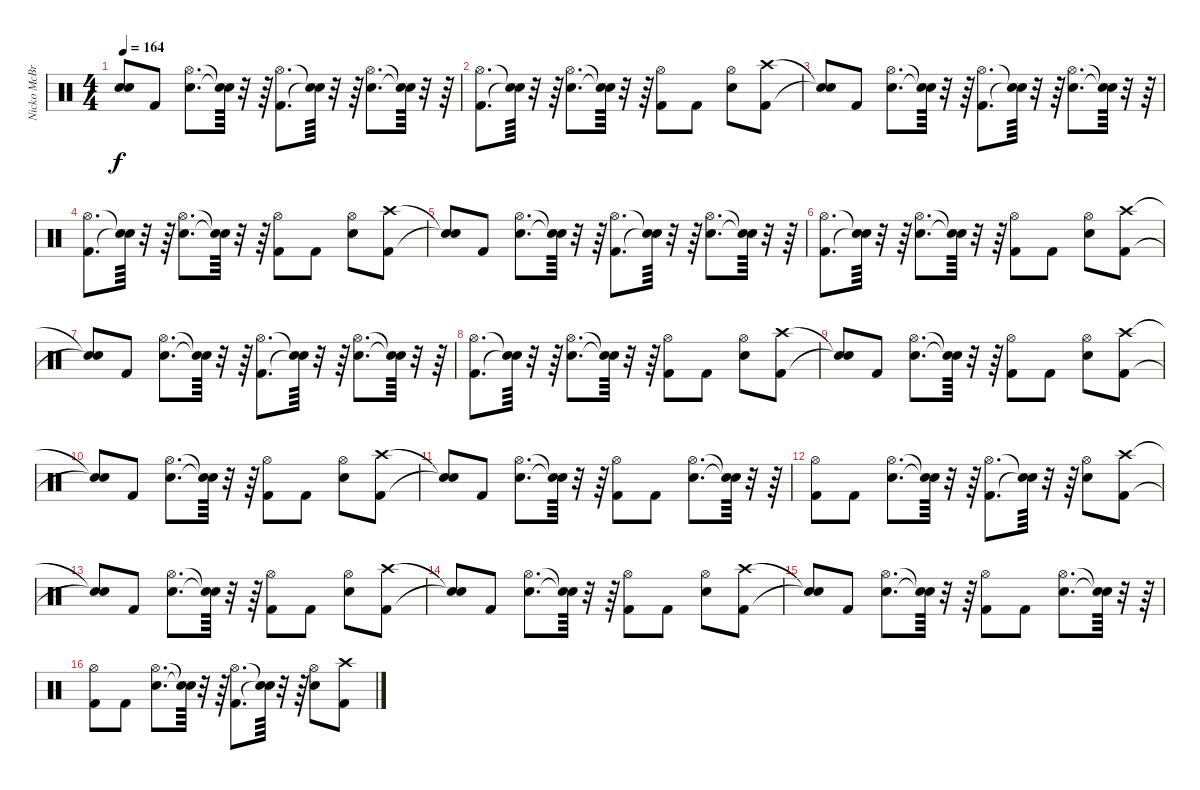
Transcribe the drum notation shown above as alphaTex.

\track ("Nicko McBrian (Drums)" "Nicko McBr") {instrument percussion}
\staff {score}
\articulation defaults
\ts (4 4)
\tempo 164
\clef neutral
\ks c
("Snare (hit)"{t} "Snare (hit)"{t}).8{dy f} "Kick (hit) 2".8 ("Snare (hit) 2" "Hi-Hat (open)").8{d} ("Snare (hit)"{t} "Snare (hit)"{t}).64 r.32 r.64 ("Kick (hit) 2" "Hi-Hat (open)").8{d} ("Snare (hit)"{t} "Snare (hit)"{t}).64 r.32 r.64 ("Snare (hit) 2" "Hi-Hat (open)").8{d} ("Snare (hit)"{t} "Snare (hit)"{t}).64 r.32 r.64 |
("Kick (hit) 2" "Hi-Hat (open)").8{d} ("Snare (hit)"{t} "Snare (hit)"{t}).64 r.32 r.64 ("Snare (hit) 2" "Hi-Hat (open)").8{d} ("Snare (hit)"{t} "Snare (hit)"{t}).64 r.32 r.64 ("Kick (hit) 2" "Hi-Hat (open)").8 "Kick (hit) 2".8 ("Snare (hit) 2" "Hi-Hat (open)").8 ("Kick (hit) 2" "Crash high (hit)").8 |
("Snare (hit)"{t} "Snare (hit)"{t}).8 "Kick (hit) 2".8 ("Snare (hit) 2" "Hi-Hat (open)").8{d} ("Snare (hit)"{t} "Snare (hit)"{t}).64 r.32 r.64 ("Kick (hit) 2" "Hi-Hat (open)").8{d} ("Snare (hit)"{t} "Snare (hit)"{t}).64 r.32 r.64 ("Snare (hit) 2" "Hi-Hat (open)").8{d} ("Snare (hit)"{t} "Snare (hit)"{t}).64 r.32 r.64 |
("Kick (hit) 2" "Hi-Hat (open)").8{d} ("Snare (hit)"{t} "Snare (hit)"{t}).64 r.32 r.64 ("Snare (hit) 2" "Hi-Hat (open)").8{d} ("Snare (hit)"{t} "Snare (hit)"{t}).64 r.32 r.64 ("Kick (hit) 2" "Hi-Hat (open)").8 "Kick (hit) 2".8 ("Snare (hit) 2" "Hi-Hat (open)").8 ("Kick (hit) 2" "Crash high (hit)").8 |
("Snare (hit)"{t} "Snare (hit)"{t}).8 "Kick (hit) 2".8 ("Snare (hit) 2" "Hi-Hat (open)").8{d} ("Snare (hit)"{t} "Snare (hit)"{t}).64 r.32 r.64 ("Kick (hit) 2" "Hi-Hat (open)").8{d} ("Snare (hit)"{t} "Snare (hit)"{t}).64 r.32 r.64 ("Snare (hit) 2" "Hi-Hat (open)").8{d} ("Snare (hit)"{t} "Snare (hit)"{t}).64 r.32 r.64 |
("Kick (hit) 2" "Hi-Hat (open)").8{d} ("Snare (hit)"{t} "Snare (hit)"{t}).64 r.32 r.64 ("Snare (hit) 2" "Hi-Hat (open)").8{d} ("Snare (hit)"{t} "Snare (hit)"{t}).64 r.32 r.64 ("Kick (hit) 2" "Hi-Hat (open)").8 "Kick (hit) 2".8 ("Snare (hit) 2" "Hi-Hat (open)").8 ("Kick (hit) 2" "Crash high (hit)").8 |
("Snare (hit)"{t} "Snare (hit)"{t}).8 "Kick (hit) 2".8 ("Snare (hit) 2" "Hi-Hat (open)").8{d} ("Snare (hit)"{t} "Snare (hit)"{t}).64 r.32 r.64 ("Kick (hit) 2" "Hi-Hat (open)").8{d} ("Snare (hit)"{t} "Snare (hit)"{t}).64 r.32 r.64 ("Snare (hit) 2" "Hi-Hat (open)").8{d} ("Snare (hit)"{t} "Snare (hit)"{t}).64 r.32 r.64 |
("Kick (hit) 2" "Hi-Hat (open)").8{d} ("Snare (hit)"{t} "Snare (hit)"{t}).64 r.32 r.64 ("Snare (hit) 2" "Hi-Hat (open)").8{d} ("Snare (hit)"{t} "Snare (hit)"{t}).64 r.32 r.64 ("Kick (hit) 2" "Hi-Hat (open)").8 "Kick (hit) 2".8 ("Snare (hit) 2" "Hi-Hat (open)").8 ("Kick (hit) 2" "Crash high (hit)").8 |
("Snare (hit)"{t} "Snare (hit)"{t}).8 "Kick (hit) 2".8 ("Snare (hit) 2" "Hi-Hat (open)").8{d} ("Snare (hit)"{t} "Snare (hit)"{t}).64 r.32 r.64 ("Kick (hit) 2" "Hi-Hat (open)").8 "Kick (hit) 2".8 ("Snare (hit) 2" "Hi-Hat (open)").8 ("Kick (hit) 2" "Crash high (hit)").8 |
("Snare (hit)"{t} "Snare (hit)"{t}).8 "Kick (hit) 2".8 ("Snare (hit) 2" "Hi-Hat (open)").8{d} ("Snare (hit)"{t} "Snare (hit)"{t}).64 r.32 r.64 ("Kick (hit) 2" "Hi-Hat (open)").8 "Kick (hit) 2".8 ("Snare (hit) 2" "Hi-Hat (open)").8 ("Kick (hit) 2" "Crash high (hit)").8 |
("Snare (hit)"{t} "Snare (hit)"{t}).8 "Kick (hit) 2".8 ("Snare (hit) 2" "Hi-Hat (open)").8{d} ("Snare (hit)"{t} "Snare (hit)"{t}).64 r.32 r.64 ("Kick (hit) 2" "Hi-Hat (open)").8 "Kick (hit) 2".8 ("Snare (hit) 2" "Hi-Hat (open)").8{d} ("Snare (hit)"{t} "Snare (hit)"{t}).64 r.32 r.64 |
("Kick (hit) 2" "Hi-Hat (open)").8 "Kick (hit) 2".8 ("Snare (hit) 2" "Hi-Hat (open)").8{d} ("Snare (hit)"{t} "Snare (hit)"{t}).64 r.32 r.64 ("Kick (hit) 2" "Hi-Hat (open)").8{d} ("Snare (hit)"{t} "Snare (hit)"{t}).64 r.32 r.64 ("Snare (hit) 2" "Hi-Hat (open)").8 ("Kick (hit) 2" "Crash high (hit)").8 |
("Snare (hit)"{t} "Snare (hit)"{t}).8 "Kick (hit) 2".8 ("Snare (hit) 2" "Hi-Hat (open)").8{d} ("Snare (hit)"{t} "Snare (hit)"{t}).64 r.32 r.64 ("Kick (hit) 2" "Hi-Hat (open)").8 "Kick (hit) 2".8 ("Snare (hit) 2" "Hi-Hat (open)").8 ("Kick (hit) 2" "Crash high (hit)").8 |
("Snare (hit)"{t} "Snare (hit)"{t}).8 "Kick (hit) 2".8 ("Snare (hit) 2" "Hi-Hat (open)").8{d} ("Snare (hit)"{t} "Snare (hit)"{t}).64 r.32 r.64 ("Kick (hit) 2" "Hi-Hat (open)").8 "Kick (hit) 2".8 ("Snare (hit) 2" "Hi-Hat (open)").8 ("Kick (hit) 2" "Crash high (hit)").8 |
("Snare (hit)"{t} "Snare (hit)"{t}).8 "Kick (hit) 2".8 ("Snare (hit) 2" "Hi-Hat (open)").8{d} ("Snare (hit)"{t} "Snare (hit)"{t}).64 r.32 r.64 ("Kick (hit) 2" "Hi-Hat (open)").8 "Kick (hit) 2".8 ("Snare (hit) 2" "Hi-Hat (open)").8{d} ("Snare (hit)"{t} "Snare (hit)"{t}).64 r.32 r.64 |
("Kick (hit) 2" "Hi-Hat (open)").8 "Kick (hit) 2".8 ("Snare (hit) 2" "Hi-Hat (open)").8{d} ("Snare (hit)"{t} "Snare (hit)"{t}).64 r.32 r.64 ("Kick (hit) 2" "Hi-Hat (open)").8{d} ("Snare (hit)"{t} "Snare (hit)"{t}).64 r.32 r.64 ("Snare (hit) 2" "Hi-Hat (open)").8 ("Kick (hit) 2" "Crash high (hit)").8
